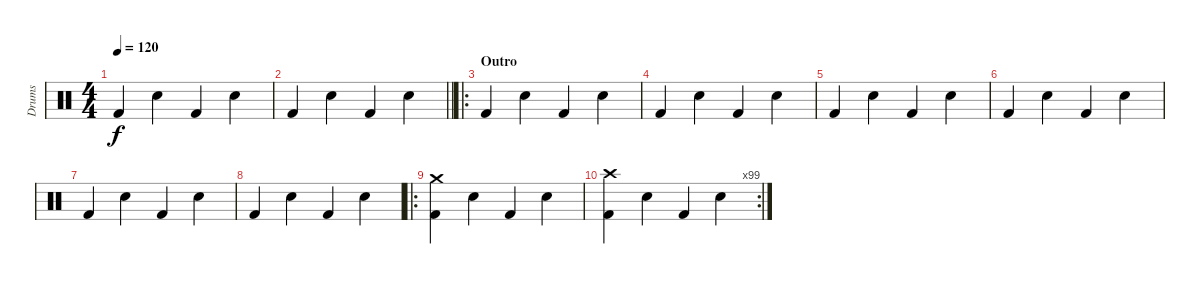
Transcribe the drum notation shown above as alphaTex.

\track ("Drums" "Drums") {instrument percussion}
\staff {score}
\articulation defaults
\ts (4 4)
\tempo 120
\clef neutral
\ks c "Kick (hit) 2".4{dy f} "Snare (hit) 2".4 "Kick (hit) 2".4 "Snare (hit) 2".4
|
\barLineRight lightlight "Kick (hit) 2".4 "Snare (hit) 2".4 "Kick (hit) 2".4 "Snare (hit) 2".4
|
\ro
\section ("" "Outro")
"Kick (hit) 2".4 "Snare (hit) 2".4 "Kick (hit) 2".4 "Snare (hit) 2".4 |
"Kick (hit) 2".4 "Snare (hit) 2".4 "Kick (hit) 2".4 "Snare (hit) 2".4 |
"Kick (hit) 2".4 "Snare (hit) 2".4 "Kick (hit) 2".4 "Snare (hit) 2".4 |
"Kick (hit) 2".4 "Snare (hit) 2".4 "Kick (hit) 2".4 "Snare (hit) 2".4 |
"Kick (hit) 2".4 "Snare (hit) 2".4 "Kick (hit) 2".4 "Snare (hit) 2".4 |
"Kick (hit) 2".4 "Snare (hit) 2".4 "Kick (hit) 2".4 "Snare (hit) 2".4 |
\ro
("Kick (hit) 2" "Crash medium (hit)").4 "Snare (hit) 2".4 "Kick (hit) 2".4 "Snare (hit) 2".4 |
\rc 99
("Kick (hit) 2" "Crash high (hit)").4 "Snare (hit) 2".4 "Kick (hit) 2".4 "Snare (hit) 2".4
